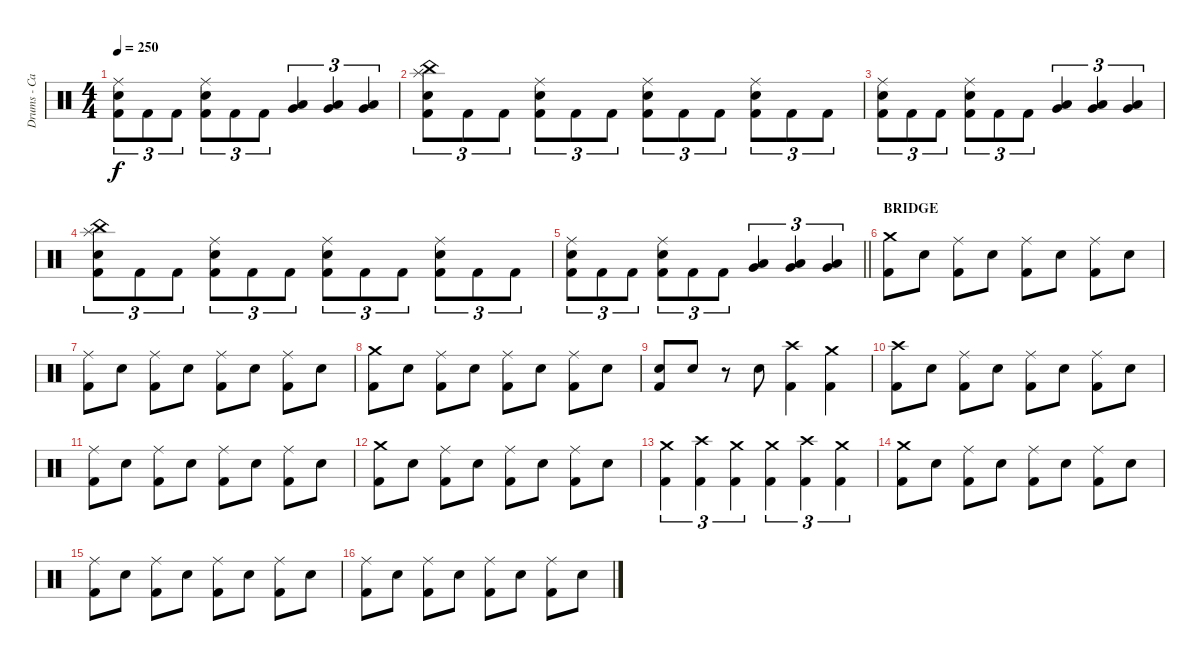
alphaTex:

\track ("Drums - Carlos Cruz" "Drums - Ca") {instrument percussion}
\staff {score}
\articulation defaults
\ts (4 4)
\tempo 250
\clef neutral
\ks c
("Ride (middle)" "Snare (hit) 2" "Kick (hit) 2").8{tu (3 2) dy f} "Kick (hit) 2".8{tu (3 2)} "Kick (hit) 2".8{tu (3 2)} ("Ride (middle)" "Snare (hit) 2" "Kick (hit) 2").8{tu (3 2)} "Kick (hit) 2".8{tu (3 2)} "Kick (hit) 2".8{tu (3 2)} ("Low Tom (hit)" "Very Low Tom (hit)").4{tu (3 2)} ("Low Tom (hit)" "Very Low Tom (hit)").4{tu (3 2)} ("Low Tom (hit)" "Very Low Tom (hit)").4{tu (3 2)} |
("China (hit)" "Splash (hit)" "Snare (hit) 2" "Kick (hit) 2").8{tu (3 2)} "Kick (hit) 2".8{tu (3 2)} "Kick (hit) 2".8{tu (3 2)} ("Ride (middle)" "Snare (hit) 2" "Kick (hit) 2").8{tu (3 2)} "Kick (hit) 2".8{tu (3 2)} "Kick (hit) 2".8{tu (3 2)} ("Ride (middle)" "Snare (hit) 2" "Kick (hit) 2").8{tu (3 2)} "Kick (hit) 2".8{tu (3 2)} "Kick (hit) 2".8{tu (3 2)} ("Ride (middle)" "Snare (hit) 2" "Kick (hit) 2").8{tu (3 2)} "Kick (hit) 2".8{tu (3 2)} "Kick (hit) 2".8{tu (3 2)} |
("Ride (middle)" "Snare (hit) 2" "Kick (hit) 2").8{tu (3 2)} "Kick (hit) 2".8{tu (3 2)} "Kick (hit) 2".8{tu (3 2)} ("Ride (middle)" "Snare (hit) 2" "Kick (hit) 2").8{tu (3 2)} "Kick (hit) 2".8{tu (3 2)} "Kick (hit) 2".8{tu (3 2)} ("Low Tom (hit)" "Very Low Tom (hit)").4{tu (3 2)} ("Low Tom (hit)" "Very Low Tom (hit)").4{tu (3 2)} ("Low Tom (hit)" "Very Low Tom (hit)").4{tu (3 2)} |
("China (hit)" "Splash (hit)" "Snare (hit) 2" "Kick (hit) 2").8{tu (3 2)} "Kick (hit) 2".8{tu (3 2)} "Kick (hit) 2".8{tu (3 2)} ("Ride (middle)" "Snare (hit) 2" "Kick (hit) 2").8{tu (3 2)} "Kick (hit) 2".8{tu (3 2)} "Kick (hit) 2".8{tu (3 2)} ("Ride (middle)" "Snare (hit) 2" "Kick (hit) 2").8{tu (3 2)} "Kick (hit) 2".8{tu (3 2)} "Kick (hit) 2".8{tu (3 2)} ("Ride (middle)" "Snare (hit) 2" "Kick (hit) 2").8{tu (3 2)} "Kick (hit) 2".8{tu (3 2)} "Kick (hit) 2".8{tu (3 2)} |
\barLineRight lightlight
("Ride (middle)" "Snare (hit) 2" "Kick (hit) 2").8{tu (3 2)} "Kick (hit) 2".8{tu (3 2)} "Kick (hit) 2".8{tu (3 2)} ("Ride (middle)" "Snare (hit) 2" "Kick (hit) 2").8{tu (3 2)} "Kick (hit) 2".8{tu (3 2)} "Kick (hit) 2".8{tu (3 2)} ("Low Tom (hit)" "Very Low Tom (hit)").4{tu (3 2)} ("Low Tom (hit)" "Very Low Tom (hit)").4{tu (3 2)} ("Low Tom (hit)" "Very Low Tom (hit)").4{tu (3 2)} |
\section ("" "BRIDGE")
("Crash medium (hit)" "Kick (hit) 2").8 "Snare (hit) 2".8 ("Ride (middle)" "Kick (hit) 2").8 "Snare (hit) 2".8 ("Ride (middle)" "Kick (hit) 2").8 "Snare (hit) 2".8 ("Ride (middle)" "Kick (hit) 2").8 "Snare (hit) 2".8 |
("Ride (middle)" "Kick (hit) 2").8 "Snare (hit) 2".8 ("Ride (middle)" "Kick (hit) 2").8 "Snare (hit) 2".8 ("Ride (middle)" "Kick (hit) 2").8 "Snare (hit) 2".8 ("Ride (middle)" "Kick (hit) 2").8 "Snare (hit) 2".8 |
("Crash medium (hit)" "Kick (hit) 2").8 "Snare (hit) 2".8 ("Ride (middle)" "Kick (hit) 2").8 "Snare (hit) 2".8 ("Ride (middle)" "Kick (hit) 2").8 "Snare (hit) 2".8 ("Ride (middle)" "Kick (hit) 2").8 "Snare (hit) 2".8 |
("Snare (hit) 2" "Kick (hit) 2").8 "Snare (hit) 2".8 r.8 "Snare (hit) 2".8 ("Crash high (hit)" "Kick (hit) 2").4 ("Crash medium (hit)" "Kick (hit) 2").4 |
("Crash high (hit)" "Kick (hit) 2").8 "Snare (hit) 2".8 ("Ride (middle)" "Kick (hit) 2").8 "Snare (hit) 2".8 ("Ride (middle)" "Kick (hit) 2").8 "Snare (hit) 2".8 ("Ride (middle)" "Kick (hit) 2").8 "Snare (hit) 2".8 |
("Ride (middle)" "Kick (hit) 2").8 "Snare (hit) 2".8 ("Ride (middle)" "Kick (hit) 2").8 "Snare (hit) 2".8 ("Ride (middle)" "Kick (hit) 2").8 "Snare (hit) 2".8 ("Ride (middle)" "Kick (hit) 2").8 "Snare (hit) 2".8 |
("Crash medium (hit)" "Kick (hit) 2").8 "Snare (hit) 2".8 ("Ride (middle)" "Kick (hit) 2").8 "Snare (hit) 2".8 ("Ride (middle)" "Kick (hit) 2").8 "Snare (hit) 2".8 ("Ride (middle)" "Kick (hit) 2").8 "Snare (hit) 2".8 |
("Crash medium (hit)" "Kick (hit) 2").4{tu (3 2)} ("Crash high (hit)" "Kick (hit) 2").4{tu (3 2)} ("Crash medium (hit)" "Kick (hit) 2").4{tu (3 2)} ("Crash medium (hit)" "Kick (hit) 2").4{tu (3 2)} ("Crash high (hit)" "Kick (hit) 2").4{tu (3 2)} ("Crash medium (hit)" "Kick (hit) 2").4{tu (3 2)} |
("Crash medium (hit)" "Kick (hit) 2").8 "Snare (hit) 2".8 ("Ride (middle)" "Kick (hit) 2").8 "Snare (hit) 2".8 ("Ride (middle)" "Kick (hit) 2").8 "Snare (hit) 2".8 ("Ride (middle)" "Kick (hit) 2").8 "Snare (hit) 2".8 |
("Ride (middle)" "Kick (hit) 2").8 "Snare (hit) 2".8 ("Ride (middle)" "Kick (hit) 2").8 "Snare (hit) 2".8 ("Ride (middle)" "Kick (hit) 2").8 "Snare (hit) 2".8 ("Ride (middle)" "Kick (hit) 2").8 "Snare (hit) 2".8 |
("Ride (middle)" "Kick (hit) 2").8 "Snare (hit) 2".8 ("Ride (middle)" "Kick (hit) 2").8 "Snare (hit) 2".8 ("Ride (middle)" "Kick (hit) 2").8 "Snare (hit) 2".8 ("Ride (middle)" "Kick (hit) 2").8 "Snare (hit) 2".8
